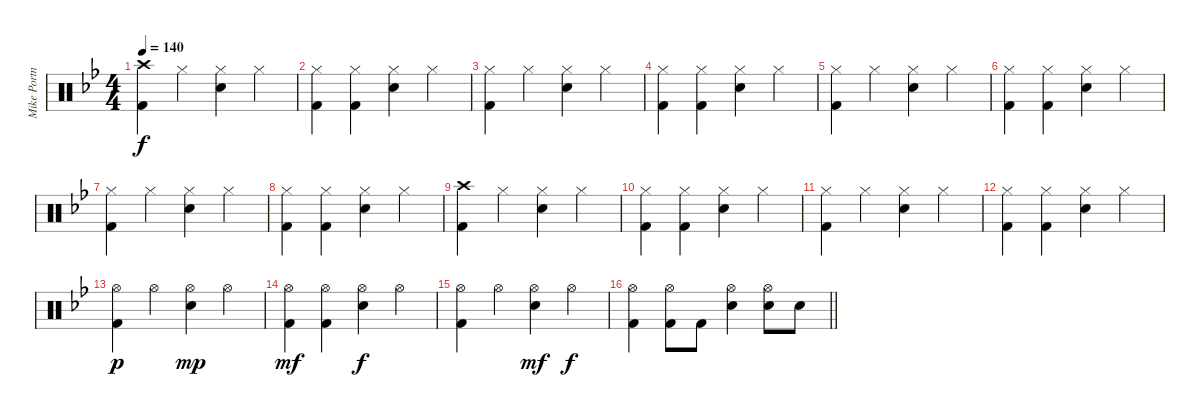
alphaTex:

\track ("Mike Portnoy" "Mike Portn") {instrument percussion}
\staff {score}
\articulation defaults
\ts (4 4)
\tempo 140
\clef neutral
\ks bb
("Crash high (hit)" "Kick (hit) 2").4{dy f} "Hi-Hat (closed)".4 ("Hi-Hat (closed)" "Electric Snare (hit)").4 "Hi-Hat (closed)".4 |
("Hi-Hat (closed)" "Kick (hit) 2").4 ("Hi-Hat (closed)" "Kick (hit) 2").4 ("Hi-Hat (closed)" "Electric Snare (hit)").4 "Hi-Hat (closed)".4 |
("Hi-Hat (closed)" "Kick (hit) 2").4 "Hi-Hat (closed)".4 ("Hi-Hat (closed)" "Electric Snare (hit)").4 "Hi-Hat (closed)".4 |
("Hi-Hat (closed)" "Kick (hit) 2").4 ("Hi-Hat (closed)" "Kick (hit) 2").4 ("Hi-Hat (closed)" "Electric Snare (hit)").4 "Hi-Hat (closed)".4 |
("Hi-Hat (closed)" "Kick (hit) 2").4 "Hi-Hat (closed)".4 ("Hi-Hat (closed)" "Electric Snare (hit)").4 "Hi-Hat (closed)".4 |
("Hi-Hat (closed)" "Kick (hit) 2").4 ("Hi-Hat (closed)" "Kick (hit) 2").4 ("Hi-Hat (closed)" "Electric Snare (hit)").4 "Hi-Hat (closed)".4 |
("Hi-Hat (closed)" "Kick (hit) 2").4 "Hi-Hat (closed)".4 ("Hi-Hat (closed)" "Electric Snare (hit)").4 "Hi-Hat (closed)".4 |
("Hi-Hat (closed)" "Kick (hit) 2").4 ("Hi-Hat (closed)" "Kick (hit) 2").4 ("Hi-Hat (closed)" "Electric Snare (hit)").4 "Hi-Hat (closed)".4 |
("Crash high (hit)" "Kick (hit) 2").4 "Hi-Hat (closed)".4 ("Hi-Hat (closed)" "Electric Snare (hit)").4 "Hi-Hat (closed)".4 |
("Hi-Hat (closed)" "Kick (hit) 2").4 ("Hi-Hat (closed)" "Kick (hit) 2").4 ("Hi-Hat (closed)" "Electric Snare (hit)").4 "Hi-Hat (closed)".4 |
("Hi-Hat (closed)" "Kick (hit) 2").4 "Hi-Hat (closed)".4 ("Hi-Hat (closed)" "Electric Snare (hit)").4 "Hi-Hat (closed)".4 |
("Hi-Hat (closed)" "Kick (hit) 2").4 ("Hi-Hat (closed)" "Kick (hit) 2").4 ("Hi-Hat (closed)" "Electric Snare (hit)").4 "Hi-Hat (closed)".4 |
("Hi-Hat (open)" "Kick (hit) 2").4{dy p} "Hi-Hat (open)".4 ("Hi-Hat (open)" "Electric Snare (hit)").4{dy mp} "Hi-Hat (open)".4 |
("Hi-Hat (open)" "Kick (hit) 2").4{dy mf} ("Hi-Hat (open)" "Kick (hit) 2").4 ("Hi-Hat (open)" "Electric Snare (hit)").4{dy f} "Hi-Hat (open)".4 |
("Hi-Hat (open)" "Kick (hit) 2").4 "Hi-Hat (open)".4 ("Hi-Hat (open)" "Electric Snare (hit)").4{dy mf} "Hi-Hat (open)".4{dy f} |
\barLineRight lightlight
("Hi-Hat (open)" "Kick (hit) 2").4 ("Hi-Hat (open)" "Kick (hit) 2").8 "Kick (hit) 2".8 ("Hi-Hat (open)" "Electric Snare (hit)").4 ("Hi-Hat (open)" "Electric Snare (hit)").8 "Electric Snare (hit)".8
